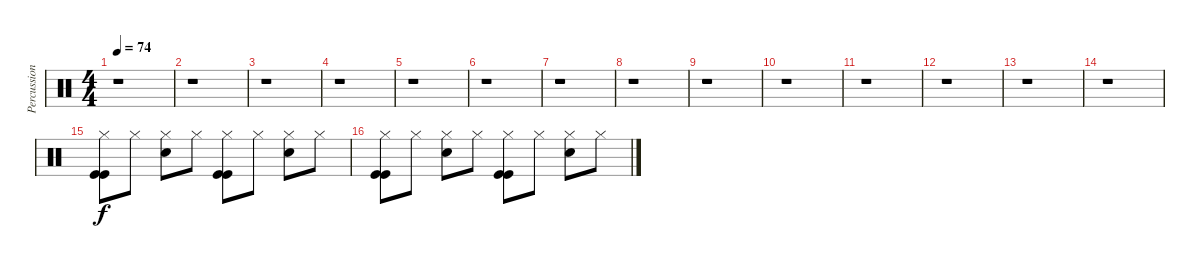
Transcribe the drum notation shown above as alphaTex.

\track ("Percussions" "Percussion") {instrument percussion}
\staff {score}
\articulation defaults
\ts (4 4)
\tempo 74
\clef neutral
\ks c
r.1{dy f} |
r.1 |
r.1 |
r.1 |
r.1 |
r.1 |
r.1 |
r.1 |
r.1 |
r.1 |
r.1 |
r.1 |
r.1 |
r.1 |
("Hi-Hat (closed)" "Kick (hit)" "Kick (hit)").8 "Hi-Hat (closed)".8 ("Hi-Hat (closed)" "Snare (hit) 2").8 "Hi-Hat (closed)".8 ("Hi-Hat (closed)" "Kick (hit)" "Kick (hit)").8 "Hi-Hat (closed)".8 ("Hi-Hat (closed)" "Snare (hit) 2").8 "Hi-Hat (closed)".8 |
("Hi-Hat (closed)" "Kick (hit)" "Kick (hit)").8 "Hi-Hat (closed)".8 ("Hi-Hat (closed)" "Snare (hit) 2").8 "Hi-Hat (closed)".8 ("Hi-Hat (closed)" "Kick (hit)" "Kick (hit)").8 "Hi-Hat (closed)".8 ("Hi-Hat (closed)" "Snare (hit) 2").8 "Hi-Hat (closed)".8
